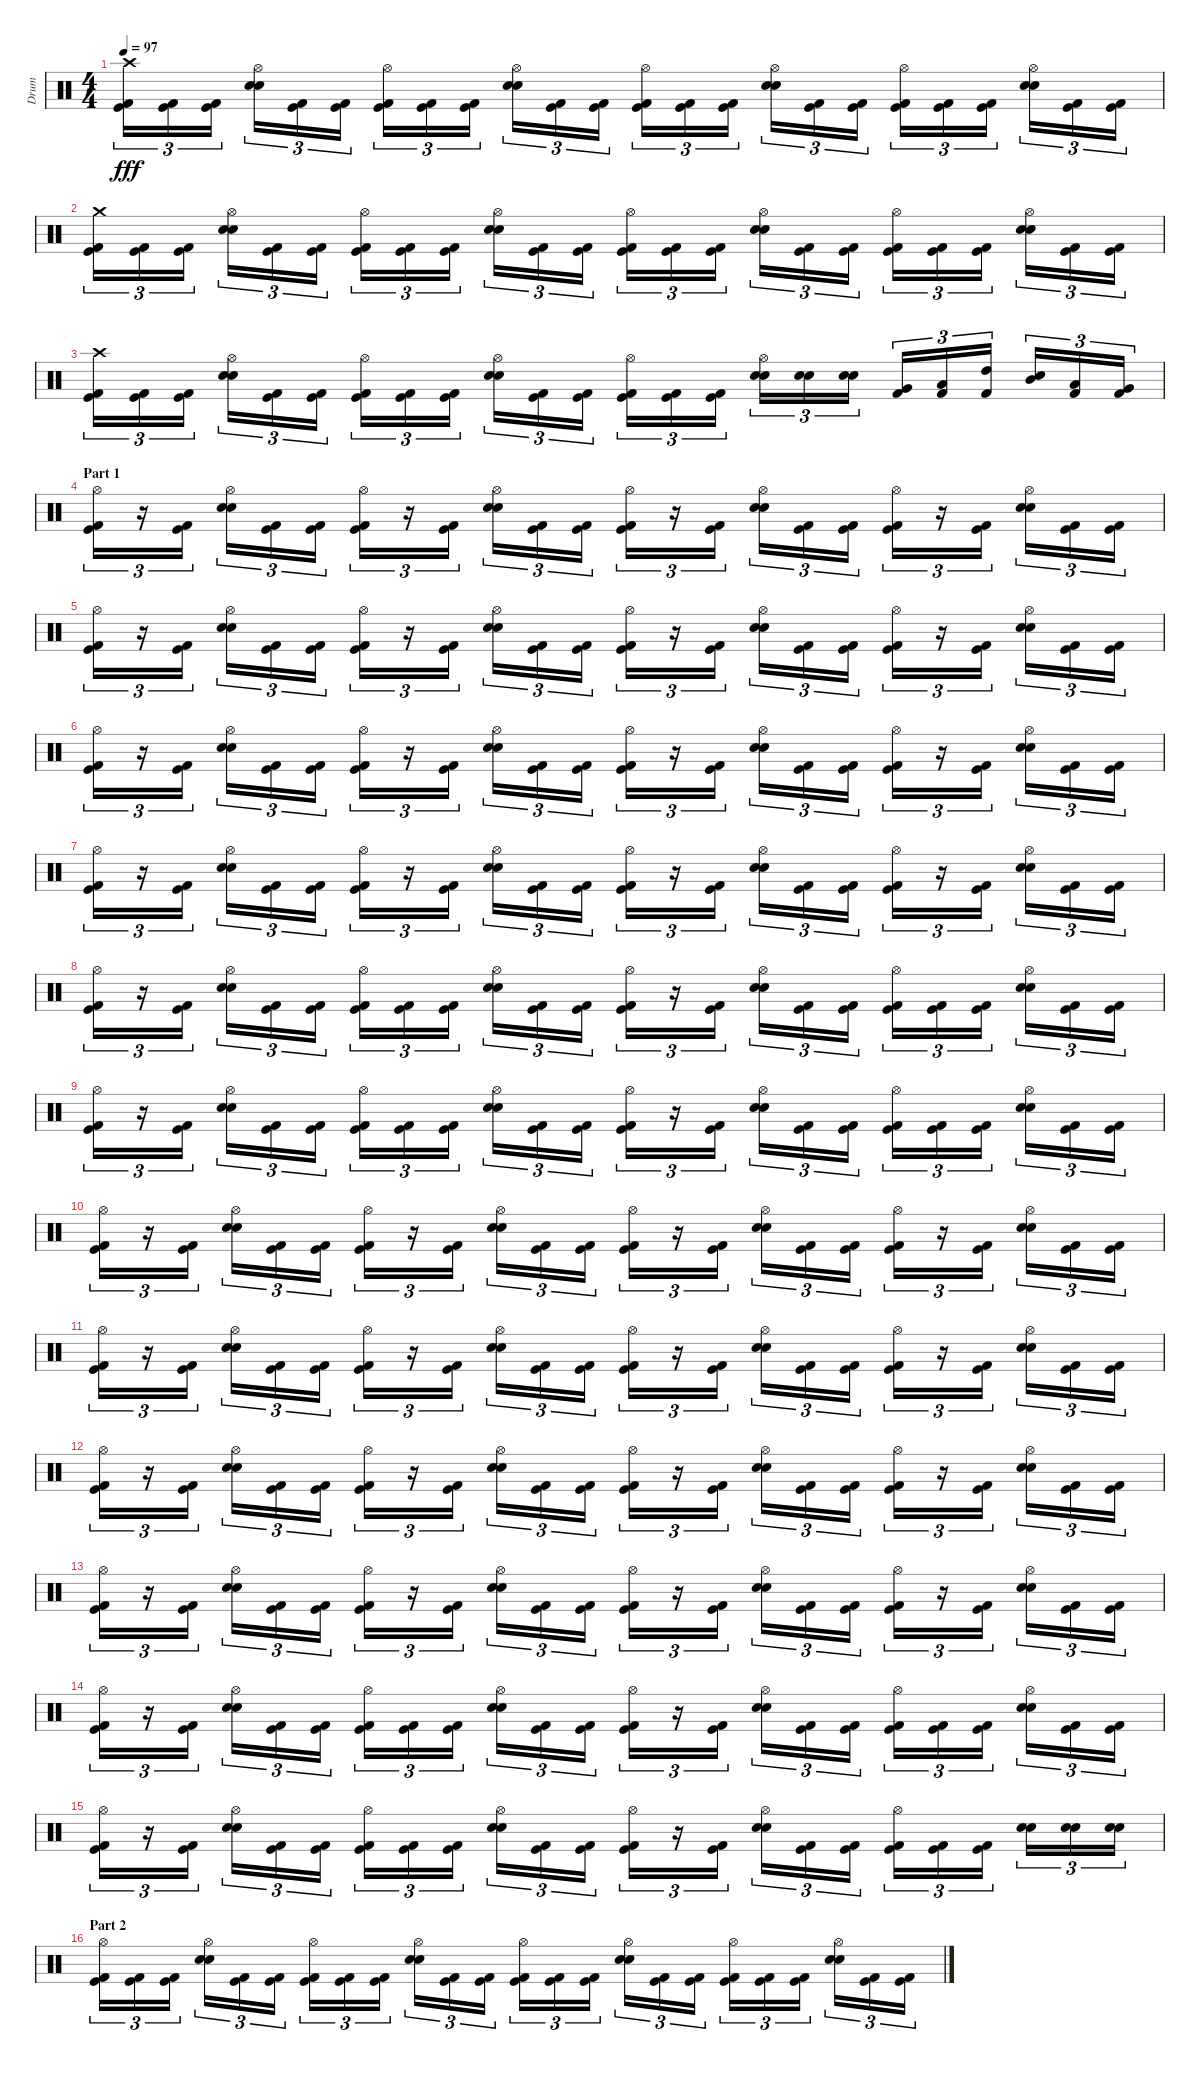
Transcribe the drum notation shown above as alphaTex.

\track ("Drum" "Drum") {instrument percussion}
\staff {score}
\articulation defaults
\ts (4 4)
\tempo 97
\clef neutral
\ks c
("Crash high (hit)" "Kick (hit)" "Kick (hit) 2").16{tu (3 2) dy fff} ("Kick (hit)" "Kick (hit) 2").16{tu (3 2)} ("Kick (hit)" "Kick (hit) 2").16{tu (3 2)} ("Hi-Hat (open)" "Electric Snare (hit)" "Snare (hit) 2").16{tu (3 2)} ("Kick (hit)" "Kick (hit) 2").16{tu (3 2)} ("Kick (hit)" "Kick (hit) 2").16{tu (3 2)} ("Hi-Hat (open)" "Kick (hit)" "Kick (hit) 2").16{tu (3 2)} ("Kick (hit)" "Kick (hit) 2").16{tu (3 2)} ("Kick (hit)" "Kick (hit) 2").16{tu (3 2)} ("Hi-Hat (open)" "Electric Snare (hit)" "Snare (hit) 2").16{tu (3 2)} ("Kick (hit)" "Kick (hit) 2").16{tu (3 2)} ("Kick (hit)" "Kick (hit) 2").16{tu (3 2)} ("Hi-Hat (open)" "Kick (hit)" "Kick (hit) 2").16{tu (3 2)} ("Kick (hit)" "Kick (hit) 2").16{tu (3 2)} ("Kick (hit)" "Kick (hit) 2").16{tu (3 2)} ("Hi-Hat (open)" "Electric Snare (hit)" "Snare (hit) 2").16{tu (3 2)} ("Kick (hit)" "Kick (hit) 2").16{tu (3 2)} ("Kick (hit)" "Kick (hit) 2").16{tu (3 2)} ("Hi-Hat (open)" "Kick (hit)" "Kick (hit) 2").16{tu (3 2)} ("Kick (hit)" "Kick (hit) 2").16{tu (3 2)} ("Kick (hit)" "Kick (hit) 2").16{tu (3 2)} ("Hi-Hat (open)" "Electric Snare (hit)" "Snare (hit) 2").16{tu (3 2)} ("Kick (hit)" "Kick (hit) 2").16{tu (3 2)} ("Kick (hit)" "Kick (hit) 2").16{tu (3 2)} |
("Crash medium (hit)" "Kick (hit)" "Kick (hit) 2").16{tu (3 2)} ("Kick (hit)" "Kick (hit) 2").16{tu (3 2)} ("Kick (hit)" "Kick (hit) 2").16{tu (3 2)} ("Hi-Hat (open)" "Electric Snare (hit)" "Snare (hit) 2").16{tu (3 2)} ("Kick (hit)" "Kick (hit) 2").16{tu (3 2)} ("Kick (hit)" "Kick (hit) 2").16{tu (3 2)} ("Hi-Hat (open)" "Kick (hit)" "Kick (hit) 2").16{tu (3 2)} ("Kick (hit)" "Kick (hit) 2").16{tu (3 2)} ("Kick (hit)" "Kick (hit) 2").16{tu (3 2)} ("Hi-Hat (open)" "Electric Snare (hit)" "Snare (hit) 2").16{tu (3 2)} ("Kick (hit)" "Kick (hit) 2").16{tu (3 2)} ("Kick (hit)" "Kick (hit) 2").16{tu (3 2)} ("Hi-Hat (open)" "Kick (hit)" "Kick (hit) 2").16{tu (3 2)} ("Kick (hit)" "Kick (hit) 2").16{tu (3 2)} ("Kick (hit)" "Kick (hit) 2").16{tu (3 2)} ("Hi-Hat (open)" "Electric Snare (hit)" "Snare (hit) 2").16{tu (3 2)} ("Kick (hit)" "Kick (hit) 2").16{tu (3 2)} ("Kick (hit)" "Kick (hit) 2").16{tu (3 2)} ("Hi-Hat (open)" "Kick (hit)" "Kick (hit) 2").16{tu (3 2)} ("Kick (hit)" "Kick (hit) 2").16{tu (3 2)} ("Kick (hit)" "Kick (hit) 2").16{tu (3 2)} ("Hi-Hat (open)" "Electric Snare (hit)" "Snare (hit) 2").16{tu (3 2)} ("Kick (hit)" "Kick (hit) 2").16{tu (3 2)} ("Kick (hit)" "Kick (hit) 2").16{tu (3 2)} |
("Crash high (hit)" "Kick (hit)" "Kick (hit) 2").16{tu (3 2)} ("Kick (hit)" "Kick (hit) 2").16{tu (3 2)} ("Kick (hit)" "Kick (hit) 2").16{tu (3 2)} ("Hi-Hat (open)" "Electric Snare (hit)" "Snare (hit) 2").16{tu (3 2)} ("Kick (hit)" "Kick (hit) 2").16{tu (3 2)} ("Kick (hit)" "Kick (hit) 2").16{tu (3 2)} ("Hi-Hat (open)" "Kick (hit)" "Kick (hit) 2").16{tu (3 2)} ("Kick (hit)" "Kick (hit) 2").16{tu (3 2)} ("Kick (hit)" "Kick (hit) 2").16{tu (3 2)} ("Hi-Hat (open)" "Electric Snare (hit)" "Snare (hit) 2").16{tu (3 2)} ("Kick (hit)" "Kick (hit) 2").16{tu (3 2)} ("Kick (hit)" "Kick (hit) 2").16{tu (3 2)} ("Hi-Hat (open)" "Kick (hit)" "Kick (hit) 2").16{tu (3 2)} ("Kick (hit)" "Kick (hit) 2").16{tu (3 2)} ("Kick (hit)" "Kick (hit) 2").16{tu (3 2)} ("Hi-Hat (open)" "Electric Snare (hit)" "Snare (hit) 2").16{tu (3 2)} ("Electric Snare (hit)" "Snare (hit) 2").16{tu (3 2)} ("Electric Snare (hit)" "Snare (hit) 2").16{tu (3 2)} ("Very Low Tom (hit)" "Kick (hit) 2").16{tu (3 2)} ("Low Floor Tom (hit)" "Kick (hit) 2").16{tu (3 2)} ("High Tom (hit)" "Kick (hit) 2").16{tu (3 2)} ("Mid Tom (hit)" "Snare (hit) 2").16{tu (3 2)} ("Low Tom (hit)" "Kick (hit) 2").16{tu (3 2)} ("Very Low Tom (hit)" "Kick (hit) 2").16{tu (3 2)} |
\section ("" "Part 1")
("Hi-Hat (open)" "Kick (hit)" "Kick (hit) 2").16{tu (3 2)} r.16{tu (3 2)} ("Kick (hit)" "Kick (hit) 2").16{tu (3 2)} ("Hi-Hat (open)" "Electric Snare (hit)" "Snare (hit) 2").16{tu (3 2)} ("Kick (hit)" "Kick (hit) 2").16{tu (3 2)} ("Kick (hit)" "Kick (hit) 2").16{tu (3 2)} ("Hi-Hat (open)" "Kick (hit)" "Kick (hit) 2").16{tu (3 2)} r.16{tu (3 2)} ("Kick (hit)" "Kick (hit) 2").16{tu (3 2)} ("Hi-Hat (open)" "Electric Snare (hit)" "Snare (hit) 2").16{tu (3 2)} ("Kick (hit)" "Kick (hit) 2").16{tu (3 2)} ("Kick (hit)" "Kick (hit) 2").16{tu (3 2)} ("Hi-Hat (open)" "Kick (hit)" "Kick (hit) 2").16{tu (3 2)} r.16{tu (3 2)} ("Kick (hit)" "Kick (hit) 2").16{tu (3 2)} ("Hi-Hat (open)" "Electric Snare (hit)" "Snare (hit) 2").16{tu (3 2)} ("Kick (hit)" "Kick (hit) 2").16{tu (3 2)} ("Kick (hit)" "Kick (hit) 2").16{tu (3 2)} ("Hi-Hat (open)" "Kick (hit)" "Kick (hit) 2").16{tu (3 2)} r.16{tu (3 2)} ("Kick (hit)" "Kick (hit) 2").16{tu (3 2)} ("Hi-Hat (open)" "Electric Snare (hit)" "Snare (hit) 2").16{tu (3 2)} ("Kick (hit)" "Kick (hit) 2").16{tu (3 2)} ("Kick (hit)" "Kick (hit) 2").16{tu (3 2)} |
("Hi-Hat (open)" "Kick (hit)" "Kick (hit) 2").16{tu (3 2)} r.16{tu (3 2)} ("Kick (hit)" "Kick (hit) 2").16{tu (3 2)} ("Hi-Hat (open)" "Electric Snare (hit)" "Snare (hit) 2").16{tu (3 2)} ("Kick (hit)" "Kick (hit) 2").16{tu (3 2)} ("Kick (hit)" "Kick (hit) 2").16{tu (3 2)} ("Hi-Hat (open)" "Kick (hit)" "Kick (hit) 2").16{tu (3 2)} r.16{tu (3 2)} ("Kick (hit)" "Kick (hit) 2").16{tu (3 2)} ("Hi-Hat (open)" "Electric Snare (hit)" "Snare (hit) 2").16{tu (3 2)} ("Kick (hit)" "Kick (hit) 2").16{tu (3 2)} ("Kick (hit)" "Kick (hit) 2").16{tu (3 2)} ("Hi-Hat (open)" "Kick (hit)" "Kick (hit) 2").16{tu (3 2)} r.16{tu (3 2)} ("Kick (hit)" "Kick (hit) 2").16{tu (3 2)} ("Hi-Hat (open)" "Electric Snare (hit)" "Snare (hit) 2").16{tu (3 2)} ("Kick (hit)" "Kick (hit) 2").16{tu (3 2)} ("Kick (hit)" "Kick (hit) 2").16{tu (3 2)} ("Hi-Hat (open)" "Kick (hit)" "Kick (hit) 2").16{tu (3 2)} r.16{tu (3 2)} ("Kick (hit)" "Kick (hit) 2").16{tu (3 2)} ("Hi-Hat (open)" "Electric Snare (hit)" "Snare (hit) 2").16{tu (3 2)} ("Kick (hit)" "Kick (hit) 2").16{tu (3 2)} ("Kick (hit)" "Kick (hit) 2").16{tu (3 2)} |
("Hi-Hat (open)" "Kick (hit)" "Kick (hit) 2").16{tu (3 2)} r.16{tu (3 2)} ("Kick (hit)" "Kick (hit) 2").16{tu (3 2)} ("Hi-Hat (open)" "Electric Snare (hit)" "Snare (hit) 2").16{tu (3 2)} ("Kick (hit)" "Kick (hit) 2").16{tu (3 2)} ("Kick (hit)" "Kick (hit) 2").16{tu (3 2)} ("Hi-Hat (open)" "Kick (hit)" "Kick (hit) 2").16{tu (3 2)} r.16{tu (3 2)} ("Kick (hit)" "Kick (hit) 2").16{tu (3 2)} ("Hi-Hat (open)" "Electric Snare (hit)" "Snare (hit) 2").16{tu (3 2)} ("Kick (hit)" "Kick (hit) 2").16{tu (3 2)} ("Kick (hit)" "Kick (hit) 2").16{tu (3 2)} ("Hi-Hat (open)" "Kick (hit)" "Kick (hit) 2").16{tu (3 2)} r.16{tu (3 2)} ("Kick (hit)" "Kick (hit) 2").16{tu (3 2)} ("Hi-Hat (open)" "Electric Snare (hit)" "Snare (hit) 2").16{tu (3 2)} ("Kick (hit)" "Kick (hit) 2").16{tu (3 2)} ("Kick (hit)" "Kick (hit) 2").16{tu (3 2)} ("Hi-Hat (open)" "Kick (hit)" "Kick (hit) 2").16{tu (3 2)} r.16{tu (3 2)} ("Kick (hit)" "Kick (hit) 2").16{tu (3 2)} ("Hi-Hat (open)" "Electric Snare (hit)" "Snare (hit) 2").16{tu (3 2)} ("Kick (hit)" "Kick (hit) 2").16{tu (3 2)} ("Kick (hit)" "Kick (hit) 2").16{tu (3 2)} |
("Hi-Hat (open)" "Kick (hit)" "Kick (hit) 2").16{tu (3 2)} r.16{tu (3 2)} ("Kick (hit)" "Kick (hit) 2").16{tu (3 2)} ("Hi-Hat (open)" "Electric Snare (hit)" "Snare (hit) 2").16{tu (3 2)} ("Kick (hit)" "Kick (hit) 2").16{tu (3 2)} ("Kick (hit)" "Kick (hit) 2").16{tu (3 2)} ("Hi-Hat (open)" "Kick (hit)" "Kick (hit) 2").16{tu (3 2)} r.16{tu (3 2)} ("Kick (hit)" "Kick (hit) 2").16{tu (3 2)} ("Hi-Hat (open)" "Electric Snare (hit)" "Snare (hit) 2").16{tu (3 2)} ("Kick (hit)" "Kick (hit) 2").16{tu (3 2)} ("Kick (hit)" "Kick (hit) 2").16{tu (3 2)} ("Hi-Hat (open)" "Kick (hit)" "Kick (hit) 2").16{tu (3 2)} r.16{tu (3 2)} ("Kick (hit)" "Kick (hit) 2").16{tu (3 2)} ("Hi-Hat (open)" "Electric Snare (hit)" "Snare (hit) 2").16{tu (3 2)} ("Kick (hit)" "Kick (hit) 2").16{tu (3 2)} ("Kick (hit)" "Kick (hit) 2").16{tu (3 2)} ("Hi-Hat (open)" "Kick (hit)" "Kick (hit) 2").16{tu (3 2)} r.16{tu (3 2)} ("Kick (hit)" "Kick (hit) 2").16{tu (3 2)} ("Hi-Hat (open)" "Electric Snare (hit)" "Snare (hit) 2").16{tu (3 2)} ("Kick (hit)" "Kick (hit) 2").16{tu (3 2)} ("Kick (hit)" "Kick (hit) 2").16{tu (3 2)} |
("Hi-Hat (open)" "Kick (hit)" "Kick (hit) 2").16{tu (3 2)} r.16{tu (3 2)} ("Kick (hit)" "Kick (hit) 2").16{tu (3 2)} ("Hi-Hat (open)" "Electric Snare (hit)" "Snare (hit) 2").16{tu (3 2)} ("Kick (hit)" "Kick (hit) 2").16{tu (3 2)} ("Kick (hit)" "Kick (hit) 2").16{tu (3 2)} ("Hi-Hat (open)" "Kick (hit)" "Kick (hit) 2").16{tu (3 2)} ("Kick (hit)" "Kick (hit) 2").16{tu (3 2)} ("Kick (hit)" "Kick (hit) 2").16{tu (3 2)} ("Hi-Hat (open)" "Electric Snare (hit)" "Snare (hit) 2").16{tu (3 2)} ("Kick (hit)" "Kick (hit) 2").16{tu (3 2)} ("Kick (hit)" "Kick (hit) 2").16{tu (3 2)} ("Hi-Hat (open)" "Kick (hit)" "Kick (hit) 2").16{tu (3 2)} r.16{tu (3 2)} ("Kick (hit)" "Kick (hit) 2").16{tu (3 2)} ("Hi-Hat (open)" "Electric Snare (hit)" "Snare (hit) 2").16{tu (3 2)} ("Kick (hit)" "Kick (hit) 2").16{tu (3 2)} ("Kick (hit)" "Kick (hit) 2").16{tu (3 2)} ("Hi-Hat (open)" "Kick (hit)" "Kick (hit) 2").16{tu (3 2)} ("Kick (hit)" "Kick (hit) 2").16{tu (3 2)} ("Kick (hit)" "Kick (hit) 2").16{tu (3 2)} ("Hi-Hat (open)" "Electric Snare (hit)" "Snare (hit) 2").16{tu (3 2)} ("Kick (hit)" "Kick (hit) 2").16{tu (3 2)} ("Kick (hit)" "Kick (hit) 2").16{tu (3 2)} |
("Hi-Hat (open)" "Kick (hit)" "Kick (hit) 2").16{tu (3 2)} r.16{tu (3 2)} ("Kick (hit)" "Kick (hit) 2").16{tu (3 2)} ("Hi-Hat (open)" "Electric Snare (hit)" "Snare (hit) 2").16{tu (3 2)} ("Kick (hit)" "Kick (hit) 2").16{tu (3 2)} ("Kick (hit)" "Kick (hit) 2").16{tu (3 2)} ("Hi-Hat (open)" "Kick (hit)" "Kick (hit) 2").16{tu (3 2)} ("Kick (hit)" "Kick (hit) 2").16{tu (3 2)} ("Kick (hit)" "Kick (hit) 2").16{tu (3 2)} ("Hi-Hat (open)" "Electric Snare (hit)" "Snare (hit) 2").16{tu (3 2)} ("Kick (hit)" "Kick (hit) 2").16{tu (3 2)} ("Kick (hit)" "Kick (hit) 2").16{tu (3 2)} ("Hi-Hat (open)" "Kick (hit)" "Kick (hit) 2").16{tu (3 2)} r.16{tu (3 2)} ("Kick (hit)" "Kick (hit) 2").16{tu (3 2)} ("Hi-Hat (open)" "Electric Snare (hit)" "Snare (hit) 2").16{tu (3 2)} ("Kick (hit)" "Kick (hit) 2").16{tu (3 2)} ("Kick (hit)" "Kick (hit) 2").16{tu (3 2)} ("Hi-Hat (open)" "Kick (hit)" "Kick (hit) 2").16{tu (3 2)} ("Kick (hit)" "Kick (hit) 2").16{tu (3 2)} ("Kick (hit)" "Kick (hit) 2").16{tu (3 2)} ("Hi-Hat (open)" "Electric Snare (hit)" "Snare (hit) 2").16{tu (3 2)} ("Kick (hit)" "Kick (hit) 2").16{tu (3 2)} ("Kick (hit)" "Kick (hit) 2").16{tu (3 2)} |
("Hi-Hat (open)" "Kick (hit)" "Kick (hit) 2").16{tu (3 2)} r.16{tu (3 2)} ("Kick (hit)" "Kick (hit) 2").16{tu (3 2)} ("Hi-Hat (open)" "Electric Snare (hit)" "Snare (hit) 2").16{tu (3 2)} ("Kick (hit)" "Kick (hit) 2").16{tu (3 2)} ("Kick (hit)" "Kick (hit) 2").16{tu (3 2)} ("Hi-Hat (open)" "Kick (hit)" "Kick (hit) 2").16{tu (3 2)} r.16{tu (3 2)} ("Kick (hit)" "Kick (hit) 2").16{tu (3 2)} ("Hi-Hat (open)" "Electric Snare (hit)" "Snare (hit) 2").16{tu (3 2)} ("Kick (hit)" "Kick (hit) 2").16{tu (3 2)} ("Kick (hit)" "Kick (hit) 2").16{tu (3 2)} ("Hi-Hat (open)" "Kick (hit)" "Kick (hit) 2").16{tu (3 2)} r.16{tu (3 2)} ("Kick (hit)" "Kick (hit) 2").16{tu (3 2)} ("Hi-Hat (open)" "Electric Snare (hit)" "Snare (hit) 2").16{tu (3 2)} ("Kick (hit)" "Kick (hit) 2").16{tu (3 2)} ("Kick (hit)" "Kick (hit) 2").16{tu (3 2)} ("Hi-Hat (open)" "Kick (hit)" "Kick (hit) 2").16{tu (3 2)} r.16{tu (3 2)} ("Kick (hit)" "Kick (hit) 2").16{tu (3 2)} ("Hi-Hat (open)" "Electric Snare (hit)" "Snare (hit) 2").16{tu (3 2)} ("Kick (hit)" "Kick (hit) 2").16{tu (3 2)} ("Kick (hit)" "Kick (hit) 2").16{tu (3 2)} |
("Hi-Hat (open)" "Kick (hit)" "Kick (hit) 2").16{tu (3 2)} r.16{tu (3 2)} ("Kick (hit)" "Kick (hit) 2").16{tu (3 2)} ("Hi-Hat (open)" "Electric Snare (hit)" "Snare (hit) 2").16{tu (3 2)} ("Kick (hit)" "Kick (hit) 2").16{tu (3 2)} ("Kick (hit)" "Kick (hit) 2").16{tu (3 2)} ("Hi-Hat (open)" "Kick (hit)" "Kick (hit) 2").16{tu (3 2)} r.16{tu (3 2)} ("Kick (hit)" "Kick (hit) 2").16{tu (3 2)} ("Hi-Hat (open)" "Electric Snare (hit)" "Snare (hit) 2").16{tu (3 2)} ("Kick (hit)" "Kick (hit) 2").16{tu (3 2)} ("Kick (hit)" "Kick (hit) 2").16{tu (3 2)} ("Hi-Hat (open)" "Kick (hit)" "Kick (hit) 2").16{tu (3 2)} r.16{tu (3 2)} ("Kick (hit)" "Kick (hit) 2").16{tu (3 2)} ("Hi-Hat (open)" "Electric Snare (hit)" "Snare (hit) 2").16{tu (3 2)} ("Kick (hit)" "Kick (hit) 2").16{tu (3 2)} ("Kick (hit)" "Kick (hit) 2").16{tu (3 2)} ("Hi-Hat (open)" "Kick (hit)" "Kick (hit) 2").16{tu (3 2)} r.16{tu (3 2)} ("Kick (hit)" "Kick (hit) 2").16{tu (3 2)} ("Hi-Hat (open)" "Electric Snare (hit)" "Snare (hit) 2").16{tu (3 2)} ("Kick (hit)" "Kick (hit) 2").16{tu (3 2)} ("Kick (hit)" "Kick (hit) 2").16{tu (3 2)} |
("Hi-Hat (open)" "Kick (hit)" "Kick (hit) 2").16{tu (3 2)} r.16{tu (3 2)} ("Kick (hit)" "Kick (hit) 2").16{tu (3 2)} ("Hi-Hat (open)" "Electric Snare (hit)" "Snare (hit) 2").16{tu (3 2)} ("Kick (hit)" "Kick (hit) 2").16{tu (3 2)} ("Kick (hit)" "Kick (hit) 2").16{tu (3 2)} ("Hi-Hat (open)" "Kick (hit)" "Kick (hit) 2").16{tu (3 2)} r.16{tu (3 2)} ("Kick (hit)" "Kick (hit) 2").16{tu (3 2)} ("Hi-Hat (open)" "Electric Snare (hit)" "Snare (hit) 2").16{tu (3 2)} ("Kick (hit)" "Kick (hit) 2").16{tu (3 2)} ("Kick (hit)" "Kick (hit) 2").16{tu (3 2)} ("Hi-Hat (open)" "Kick (hit)" "Kick (hit) 2").16{tu (3 2)} r.16{tu (3 2)} ("Kick (hit)" "Kick (hit) 2").16{tu (3 2)} ("Hi-Hat (open)" "Electric Snare (hit)" "Snare (hit) 2").16{tu (3 2)} ("Kick (hit)" "Kick (hit) 2").16{tu (3 2)} ("Kick (hit)" "Kick (hit) 2").16{tu (3 2)} ("Hi-Hat (open)" "Kick (hit)" "Kick (hit) 2").16{tu (3 2)} r.16{tu (3 2)} ("Kick (hit)" "Kick (hit) 2").16{tu (3 2)} ("Hi-Hat (open)" "Electric Snare (hit)" "Snare (hit) 2").16{tu (3 2)} ("Kick (hit)" "Kick (hit) 2").16{tu (3 2)} ("Kick (hit)" "Kick (hit) 2").16{tu (3 2)} |
("Hi-Hat (open)" "Kick (hit)" "Kick (hit) 2").16{tu (3 2)} r.16{tu (3 2)} ("Kick (hit)" "Kick (hit) 2").16{tu (3 2)} ("Hi-Hat (open)" "Electric Snare (hit)" "Snare (hit) 2").16{tu (3 2)} ("Kick (hit)" "Kick (hit) 2").16{tu (3 2)} ("Kick (hit)" "Kick (hit) 2").16{tu (3 2)} ("Hi-Hat (open)" "Kick (hit)" "Kick (hit) 2").16{tu (3 2)} r.16{tu (3 2)} ("Kick (hit)" "Kick (hit) 2").16{tu (3 2)} ("Hi-Hat (open)" "Electric Snare (hit)" "Snare (hit) 2").16{tu (3 2)} ("Kick (hit)" "Kick (hit) 2").16{tu (3 2)} ("Kick (hit)" "Kick (hit) 2").16{tu (3 2)} ("Hi-Hat (open)" "Kick (hit)" "Kick (hit) 2").16{tu (3 2)} r.16{tu (3 2)} ("Kick (hit)" "Kick (hit) 2").16{tu (3 2)} ("Hi-Hat (open)" "Electric Snare (hit)" "Snare (hit) 2").16{tu (3 2)} ("Kick (hit)" "Kick (hit) 2").16{tu (3 2)} ("Kick (hit)" "Kick (hit) 2").16{tu (3 2)} ("Hi-Hat (open)" "Kick (hit)" "Kick (hit) 2").16{tu (3 2)} r.16{tu (3 2)} ("Kick (hit)" "Kick (hit) 2").16{tu (3 2)} ("Hi-Hat (open)" "Electric Snare (hit)" "Snare (hit) 2").16{tu (3 2)} ("Kick (hit)" "Kick (hit) 2").16{tu (3 2)} ("Kick (hit)" "Kick (hit) 2").16{tu (3 2)} |
("Hi-Hat (open)" "Kick (hit)" "Kick (hit) 2").16{tu (3 2)} r.16{tu (3 2)} ("Kick (hit)" "Kick (hit) 2").16{tu (3 2)} ("Hi-Hat (open)" "Electric Snare (hit)" "Snare (hit) 2").16{tu (3 2)} ("Kick (hit)" "Kick (hit) 2").16{tu (3 2)} ("Kick (hit)" "Kick (hit) 2").16{tu (3 2)} ("Hi-Hat (open)" "Kick (hit)" "Kick (hit) 2").16{tu (3 2)} ("Kick (hit)" "Kick (hit) 2").16{tu (3 2)} ("Kick (hit)" "Kick (hit) 2").16{tu (3 2)} ("Hi-Hat (open)" "Electric Snare (hit)" "Snare (hit) 2").16{tu (3 2)} ("Kick (hit)" "Kick (hit) 2").16{tu (3 2)} ("Kick (hit)" "Kick (hit) 2").16{tu (3 2)} ("Hi-Hat (open)" "Kick (hit)" "Kick (hit) 2").16{tu (3 2)} r.16{tu (3 2)} ("Kick (hit)" "Kick (hit) 2").16{tu (3 2)} ("Hi-Hat (open)" "Electric Snare (hit)" "Snare (hit) 2").16{tu (3 2)} ("Kick (hit)" "Kick (hit) 2").16{tu (3 2)} ("Kick (hit)" "Kick (hit) 2").16{tu (3 2)} ("Hi-Hat (open)" "Kick (hit)" "Kick (hit) 2").16{tu (3 2)} ("Kick (hit)" "Kick (hit) 2").16{tu (3 2)} ("Kick (hit)" "Kick (hit) 2").16{tu (3 2)} ("Hi-Hat (open)" "Electric Snare (hit)" "Snare (hit) 2").16{tu (3 2)} ("Kick (hit)" "Kick (hit) 2").16{tu (3 2)} ("Kick (hit)" "Kick (hit) 2").16{tu (3 2)} |
("Hi-Hat (open)" "Kick (hit)" "Kick (hit) 2").16{tu (3 2)} r.16{tu (3 2)} ("Kick (hit)" "Kick (hit) 2").16{tu (3 2)} ("Hi-Hat (open)" "Electric Snare (hit)" "Snare (hit) 2").16{tu (3 2)} ("Kick (hit)" "Kick (hit) 2").16{tu (3 2)} ("Kick (hit)" "Kick (hit) 2").16{tu (3 2)} ("Hi-Hat (open)" "Kick (hit)" "Kick (hit) 2").16{tu (3 2)} ("Kick (hit)" "Kick (hit) 2").16{tu (3 2)} ("Kick (hit)" "Kick (hit) 2").16{tu (3 2)} ("Hi-Hat (open)" "Electric Snare (hit)" "Snare (hit) 2").16{tu (3 2)} ("Kick (hit)" "Kick (hit) 2").16{tu (3 2)} ("Kick (hit)" "Kick (hit) 2").16{tu (3 2)} ("Hi-Hat (open)" "Kick (hit)" "Kick (hit) 2").16{tu (3 2)} r.16{tu (3 2)} ("Kick (hit)" "Kick (hit) 2").16{tu (3 2)} ("Hi-Hat (open)" "Electric Snare (hit)" "Snare (hit) 2").16{tu (3 2)} ("Kick (hit)" "Kick (hit) 2").16{tu (3 2)} ("Kick (hit)" "Kick (hit) 2").16{tu (3 2)} ("Hi-Hat (open)" "Kick (hit)" "Kick (hit) 2").16{tu (3 2)} ("Kick (hit)" "Kick (hit) 2").16{tu (3 2)} ("Kick (hit)" "Kick (hit) 2").16{tu (3 2)} ("Electric Snare (hit)" "Snare (hit) 2").16{tu (3 2)} ("Electric Snare (hit)" "Snare (hit) 2").16{tu (3 2)} ("Electric Snare (hit)" "Snare (hit) 2").16{tu (3 2)} |
\section ("" "Part 2")
("Hi-Hat (open)" "Kick (hit)" "Kick (hit) 2").16{tu (3 2)} ("Kick (hit)" "Kick (hit) 2").16{tu (3 2)} ("Kick (hit)" "Kick (hit) 2").16{tu (3 2)} ("Hi-Hat (open)" "Electric Snare (hit)" "Snare (hit) 2").16{tu (3 2)} ("Kick (hit)" "Kick (hit) 2").16{tu (3 2)} ("Kick (hit)" "Kick (hit) 2").16{tu (3 2)} ("Hi-Hat (open)" "Kick (hit)" "Kick (hit) 2").16{tu (3 2)} ("Kick (hit)" "Kick (hit) 2").16{tu (3 2)} ("Kick (hit)" "Kick (hit) 2").16{tu (3 2)} ("Hi-Hat (open)" "Electric Snare (hit)" "Snare (hit) 2").16{tu (3 2)} ("Kick (hit)" "Kick (hit) 2").16{tu (3 2)} ("Kick (hit)" "Kick (hit) 2").16{tu (3 2)} ("Hi-Hat (open)" "Kick (hit)" "Kick (hit) 2").16{tu (3 2)} ("Kick (hit)" "Kick (hit) 2").16{tu (3 2)} ("Kick (hit)" "Kick (hit) 2").16{tu (3 2)} ("Hi-Hat (open)" "Electric Snare (hit)" "Snare (hit) 2").16{tu (3 2)} ("Kick (hit)" "Kick (hit) 2").16{tu (3 2)} ("Kick (hit)" "Kick (hit) 2").16{tu (3 2)} ("Hi-Hat (open)" "Kick (hit)" "Kick (hit) 2").16{tu (3 2)} ("Kick (hit)" "Kick (hit) 2").16{tu (3 2)} ("Kick (hit)" "Kick (hit) 2").16{tu (3 2)} ("Hi-Hat (open)" "Electric Snare (hit)" "Snare (hit) 2").16{tu (3 2)} ("Kick (hit)" "Kick (hit) 2").16{tu (3 2)} ("Kick (hit)" "Kick (hit) 2").16{tu (3 2)}
